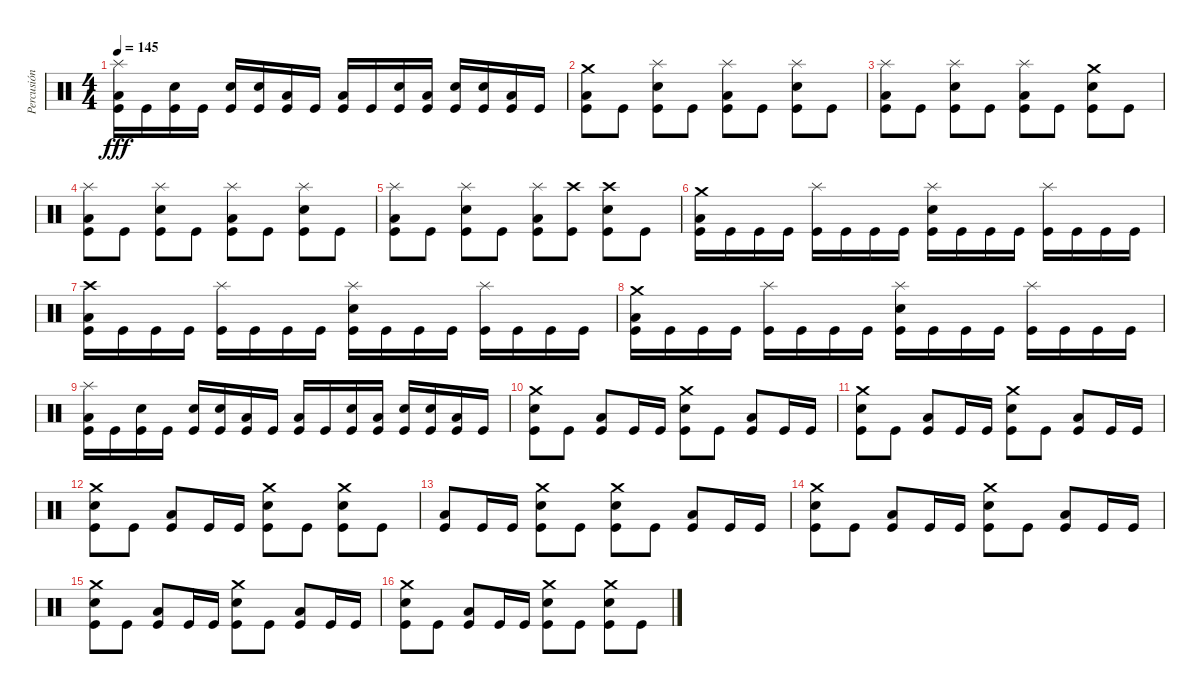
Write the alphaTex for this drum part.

\track ("Percusión" "Percusión") {instrument percussion}
\staff {score}
\articulation defaults
\ts (4 4)
\tempo 145
\clef neutral
\ks c
("Splash (hit)" "Low Floor Tom (hit)" "Kick (hit)").16{dy fff} "Kick (hit)".16 ("Snare (hit) 2" "Kick (hit)").16 "Kick (hit)".16 ("Snare (hit) 2" "Kick (hit)").16 ("Snare (hit) 2" "Kick (hit)").16 ("Low Floor Tom (hit)" "Kick (hit)").16 "Kick (hit)".16 ("Low Floor Tom (hit)" "Kick (hit)").16 "Kick (hit)".16 ("Snare (hit) 2" "Kick (hit)").16 ("Low Floor Tom (hit)" "Kick (hit)").16 ("Snare (hit) 2" "Kick (hit)").16 ("Snare (hit) 2" "Kick (hit)").16 ("Low Floor Tom (hit)" "Kick (hit)").16 "Kick (hit)".16 |
("Crash medium (hit)" "Low Floor Tom (hit)" "Kick (hit)").8 "Kick (hit)".8 ("Splash (hit)" "Snare (hit) 2" "Kick (hit)").8 "Kick (hit)".8 ("Splash (hit)" "Low Floor Tom (hit)" "Kick (hit)").8 "Kick (hit)".8 ("Splash (hit)" "Snare (hit) 2" "Kick (hit)").8 "Kick (hit)".8 |
("Splash (hit)" "Low Floor Tom (hit)" "Kick (hit)").8 "Kick (hit)".8 ("Splash (hit)" "Snare (hit) 2" "Kick (hit)").8 "Kick (hit)".8 ("Splash (hit)" "Low Floor Tom (hit)" "Kick (hit)").8 "Kick (hit)".8 ("Crash medium (hit)" "Snare (hit) 2" "Kick (hit)").8 "Kick (hit)".8 |
("Splash (hit)" "Low Floor Tom (hit)" "Kick (hit)").8 "Kick (hit)".8 ("Splash (hit)" "Snare (hit) 2" "Kick (hit)").8 "Kick (hit)".8 ("Splash (hit)" "Low Floor Tom (hit)" "Kick (hit)").8 "Kick (hit)".8 ("Splash (hit)" "Snare (hit) 2" "Kick (hit)").8 "Kick (hit)".8 |
("Splash (hit)" "Low Floor Tom (hit)" "Kick (hit)").8 "Kick (hit)".8 ("Splash (hit)" "Snare (hit) 2" "Kick (hit)").8 "Kick (hit)".8 ("Splash (hit)" "Low Floor Tom (hit)" "Kick (hit)").8 ("Crash high (hit)" "Kick (hit)").8 ("Crash high (hit)" "Snare (hit) 2" "Kick (hit)").8 "Kick (hit)".8 |
("Crash medium (hit)" "Low Floor Tom (hit)" "Kick (hit)").16 "Kick (hit)".16 "Kick (hit)".16 "Kick (hit)".16 ("Splash (hit)" "Kick (hit)").16 "Kick (hit)".16 "Kick (hit)".16 "Kick (hit)".16 ("Splash (hit)" "Snare (hit) 2" "Kick (hit)").16 "Kick (hit)".16 "Kick (hit)".16 "Kick (hit)".16 ("Splash (hit)" "Kick (hit)").16 "Kick (hit)".16 "Kick (hit)".16 "Kick (hit)".16 |
("Crash high (hit)" "Low Floor Tom (hit)" "Kick (hit)").16 "Kick (hit)".16 "Kick (hit)".16 "Kick (hit)".16 ("Splash (hit)" "Kick (hit)").16 "Kick (hit)".16 "Kick (hit)".16 "Kick (hit)".16 ("Splash (hit)" "Snare (hit) 2" "Kick (hit)").16 "Kick (hit)".16 "Kick (hit)".16 "Kick (hit)".16 ("Splash (hit)" "Kick (hit)").16 "Kick (hit)".16 "Kick (hit)".16 "Kick (hit)".16 |
("Crash medium (hit)" "Low Floor Tom (hit)" "Kick (hit)").16 "Kick (hit)".16 "Kick (hit)".16 "Kick (hit)".16 ("Splash (hit)" "Kick (hit)").16 "Kick (hit)".16 "Kick (hit)".16 "Kick (hit)".16 ("Splash (hit)" "Snare (hit) 2" "Kick (hit)").16 "Kick (hit)".16 "Kick (hit)".16 "Kick (hit)".16 ("Splash (hit)" "Kick (hit)").16 "Kick (hit)".16 "Kick (hit)".16 "Kick (hit)".16 |
("Splash (hit)" "Low Floor Tom (hit)" "Kick (hit)").16 "Kick (hit)".16 ("Snare (hit) 2" "Kick (hit)").16 "Kick (hit)".16 ("Snare (hit) 2" "Kick (hit)").16 ("Snare (hit) 2" "Kick (hit)").16 ("Low Floor Tom (hit)" "Kick (hit)").16 "Kick (hit)".16 ("Low Floor Tom (hit)" "Kick (hit)").16 "Kick (hit)".16 ("Snare (hit) 2" "Kick (hit)").16 ("Low Floor Tom (hit)" "Kick (hit)").16 ("Snare (hit) 2" "Kick (hit)").16 ("Snare (hit) 2" "Kick (hit)").16 ("Low Floor Tom (hit)" "Kick (hit)").16 "Kick (hit)".16 |
("Crash medium (hit)" "Snare (hit) 2" "Kick (hit)").8 "Kick (hit)".8 ("Low Floor Tom (hit)" "Kick (hit)").8 "Kick (hit)".16 "Kick (hit)".16 ("Crash medium (hit)" "Snare (hit) 2" "Kick (hit)").8 "Kick (hit)".8 ("Low Floor Tom (hit)" "Kick (hit)").8 "Kick (hit)".16 "Kick (hit)".16 |
("Crash medium (hit)" "Snare (hit) 2" "Kick (hit)").8 "Kick (hit)".8 ("Low Floor Tom (hit)" "Kick (hit)").8 "Kick (hit)".16 "Kick (hit)".16 ("Crash medium (hit)" "Snare (hit) 2" "Kick (hit)").8 "Kick (hit)".8 ("Low Floor Tom (hit)" "Kick (hit)").8 "Kick (hit)".16 "Kick (hit)".16 |
("Crash medium (hit)" "Snare (hit) 2" "Kick (hit)").8 "Kick (hit)".8 ("Low Floor Tom (hit)" "Kick (hit)").8 "Kick (hit)".16 "Kick (hit)".16 ("Crash medium (hit)" "Snare (hit) 2" "Kick (hit)").8 "Kick (hit)".8 ("Crash medium (hit)" "Snare (hit) 2" "Kick (hit)").8 "Kick (hit)".8 |
("Low Floor Tom (hit)" "Kick (hit)").8 "Kick (hit)".16 "Kick (hit)".16 ("Crash medium (hit)" "Snare (hit) 2" "Kick (hit)").8 "Kick (hit)".8 ("Crash medium (hit)" "Snare (hit) 2" "Kick (hit)").8 "Kick (hit)".8 ("Low Floor Tom (hit)" "Kick (hit)").8 "Kick (hit)".16 "Kick (hit)".16 |
("Crash medium (hit)" "Snare (hit) 2" "Kick (hit)").8 "Kick (hit)".8 ("Low Floor Tom (hit)" "Kick (hit)").8 "Kick (hit)".16 "Kick (hit)".16 ("Crash medium (hit)" "Snare (hit) 2" "Kick (hit)").8 "Kick (hit)".8 ("Low Floor Tom (hit)" "Kick (hit)").8 "Kick (hit)".16 "Kick (hit)".16 |
("Crash medium (hit)" "Snare (hit) 2" "Kick (hit)").8 "Kick (hit)".8 ("Low Floor Tom (hit)" "Kick (hit)").8 "Kick (hit)".16 "Kick (hit)".16 ("Crash medium (hit)" "Snare (hit) 2" "Kick (hit)").8 "Kick (hit)".8 ("Low Floor Tom (hit)" "Kick (hit)").8 "Kick (hit)".16 "Kick (hit)".16 |
("Crash medium (hit)" "Snare (hit) 2" "Kick (hit)").8 "Kick (hit)".8 ("Low Floor Tom (hit)" "Kick (hit)").8 "Kick (hit)".16 "Kick (hit)".16 ("Crash medium (hit)" "Snare (hit) 2" "Kick (hit)").8 "Kick (hit)".8 ("Crash medium (hit)" "Snare (hit) 2" "Kick (hit)").8 "Kick (hit)".8
